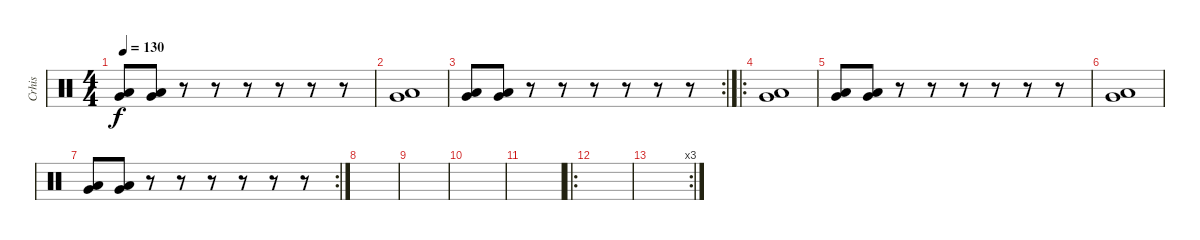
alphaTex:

\track ("Crhis" "Crhis") {instrument percussion}
\staff {score}
\articulation defaults
\ts (4 4)
\tempo 130
\clef neutral
\ks c
("Very Low Tom (hit)" "Low Floor Tom (hit)").8{dy f} ("Very Low Tom (hit)" "Low Floor Tom (hit)").8 r.8 r.8 r.8 r.8 r.8 r.8 |
("Very Low Tom (hit)" "Low Floor Tom (hit)").1 |
\rc 2
("Very Low Tom (hit)" "Low Floor Tom (hit)").8 ("Very Low Tom (hit)" "Low Floor Tom (hit)").8 r.8 r.8 r.8 r.8 r.8 r.8 |
\ro
("Very Low Tom (hit)" "Low Floor Tom (hit)").1 |
("Very Low Tom (hit)" "Low Floor Tom (hit)").8 ("Very Low Tom (hit)" "Low Floor Tom (hit)").8 r.8 r.8 r.8 r.8 r.8 r.8 |
("Very Low Tom (hit)" "Low Floor Tom (hit)").1 |
\rc 2
("Very Low Tom (hit)" "Low Floor Tom (hit)").8 ("Very Low Tom (hit)" "Low Floor Tom (hit)").8 r.8 r.8 r.8 r.8 r.8 r.8 |
|
|
|
|
\ro
|
\rc 3
